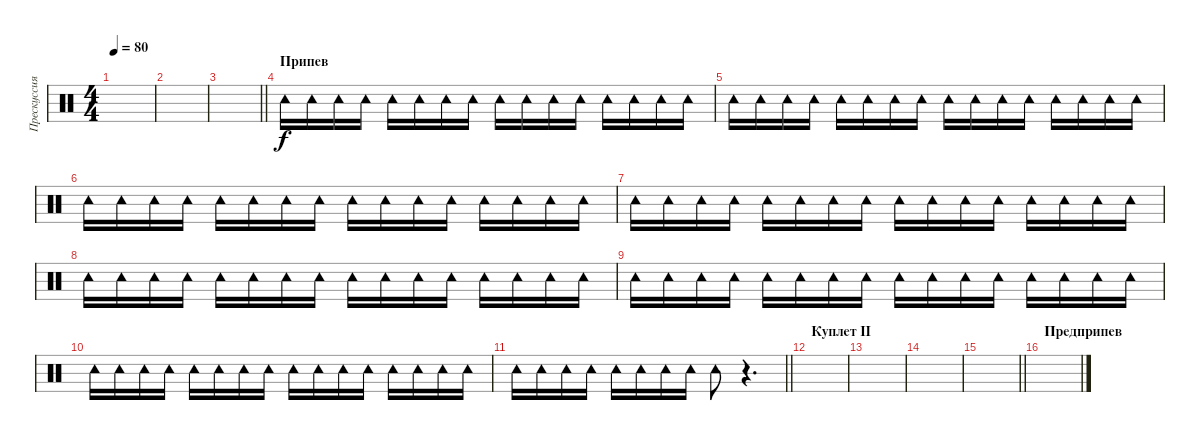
\track ("Прескуссия" "Прескуссия") {instrument percussion}
\staff {score}
\articulation defaults
\ts (4 4)
\tempo 80
\clef neutral
\ks c
|
|
\barLineRight lightlight
|
\section ("" "Припев")
"Tambourine (hit)".16 "Tambourine (hit)".16 "Tambourine (hit)".16 "Tambourine (hit)".16 "Tambourine (hit)".16 "Tambourine (hit)".16 "Tambourine (hit)".16 "Tambourine (hit)".16 "Tambourine (hit)".16 "Tambourine (hit)".16 "Tambourine (hit)".16 "Tambourine (hit)".16 "Tambourine (hit)".16 "Tambourine (hit)".16 "Tambourine (hit)".16 "Tambourine (hit)".16 |
"Tambourine (hit)".16 "Tambourine (hit)".16 "Tambourine (hit)".16 "Tambourine (hit)".16 "Tambourine (hit)".16 "Tambourine (hit)".16 "Tambourine (hit)".16 "Tambourine (hit)".16 "Tambourine (hit)".16 "Tambourine (hit)".16 "Tambourine (hit)".16 "Tambourine (hit)".16 "Tambourine (hit)".16 "Tambourine (hit)".16 "Tambourine (hit)".16 "Tambourine (hit)".16 |
"Tambourine (hit)".16 "Tambourine (hit)".16 "Tambourine (hit)".16 "Tambourine (hit)".16 "Tambourine (hit)".16 "Tambourine (hit)".16 "Tambourine (hit)".16 "Tambourine (hit)".16 "Tambourine (hit)".16 "Tambourine (hit)".16 "Tambourine (hit)".16 "Tambourine (hit)".16 "Tambourine (hit)".16 "Tambourine (hit)".16 "Tambourine (hit)".16 "Tambourine (hit)".16 |
"Tambourine (hit)".16 "Tambourine (hit)".16 "Tambourine (hit)".16 "Tambourine (hit)".16 "Tambourine (hit)".16 "Tambourine (hit)".16 "Tambourine (hit)".16 "Tambourine (hit)".16 "Tambourine (hit)".16 "Tambourine (hit)".16 "Tambourine (hit)".16 "Tambourine (hit)".16 "Tambourine (hit)".16 "Tambourine (hit)".16 "Tambourine (hit)".16 "Tambourine (hit)".16 |
"Tambourine (hit)".16 "Tambourine (hit)".16 "Tambourine (hit)".16 "Tambourine (hit)".16 "Tambourine (hit)".16 "Tambourine (hit)".16 "Tambourine (hit)".16 "Tambourine (hit)".16 "Tambourine (hit)".16 "Tambourine (hit)".16 "Tambourine (hit)".16 "Tambourine (hit)".16 "Tambourine (hit)".16 "Tambourine (hit)".16 "Tambourine (hit)".16 "Tambourine (hit)".16 |
"Tambourine (hit)".16 "Tambourine (hit)".16 "Tambourine (hit)".16 "Tambourine (hit)".16 "Tambourine (hit)".16 "Tambourine (hit)".16 "Tambourine (hit)".16 "Tambourine (hit)".16 "Tambourine (hit)".16 "Tambourine (hit)".16 "Tambourine (hit)".16 "Tambourine (hit)".16 "Tambourine (hit)".16 "Tambourine (hit)".16 "Tambourine (hit)".16 "Tambourine (hit)".16 |
"Tambourine (hit)".16 "Tambourine (hit)".16 "Tambourine (hit)".16 "Tambourine (hit)".16 "Tambourine (hit)".16 "Tambourine (hit)".16 "Tambourine (hit)".16 "Tambourine (hit)".16 "Tambourine (hit)".16 "Tambourine (hit)".16 "Tambourine (hit)".16 "Tambourine (hit)".16 "Tambourine (hit)".16 "Tambourine (hit)".16 "Tambourine (hit)".16 "Tambourine (hit)".16 |
\barLineRight lightlight "Tambourine (hit)".16 "Tambourine (hit)".16 "Tambourine (hit)".16 "Tambourine (hit)".16 "Tambourine (hit)".16 "Tambourine (hit)".16 "Tambourine (hit)".16 "Tambourine (hit)".16 "Tambourine (hit)".8
r.4{d} |
\section ("" "Куплет II")
|
|
|
\barLineRight lightlight
|
\section ("" "Предприпев")
